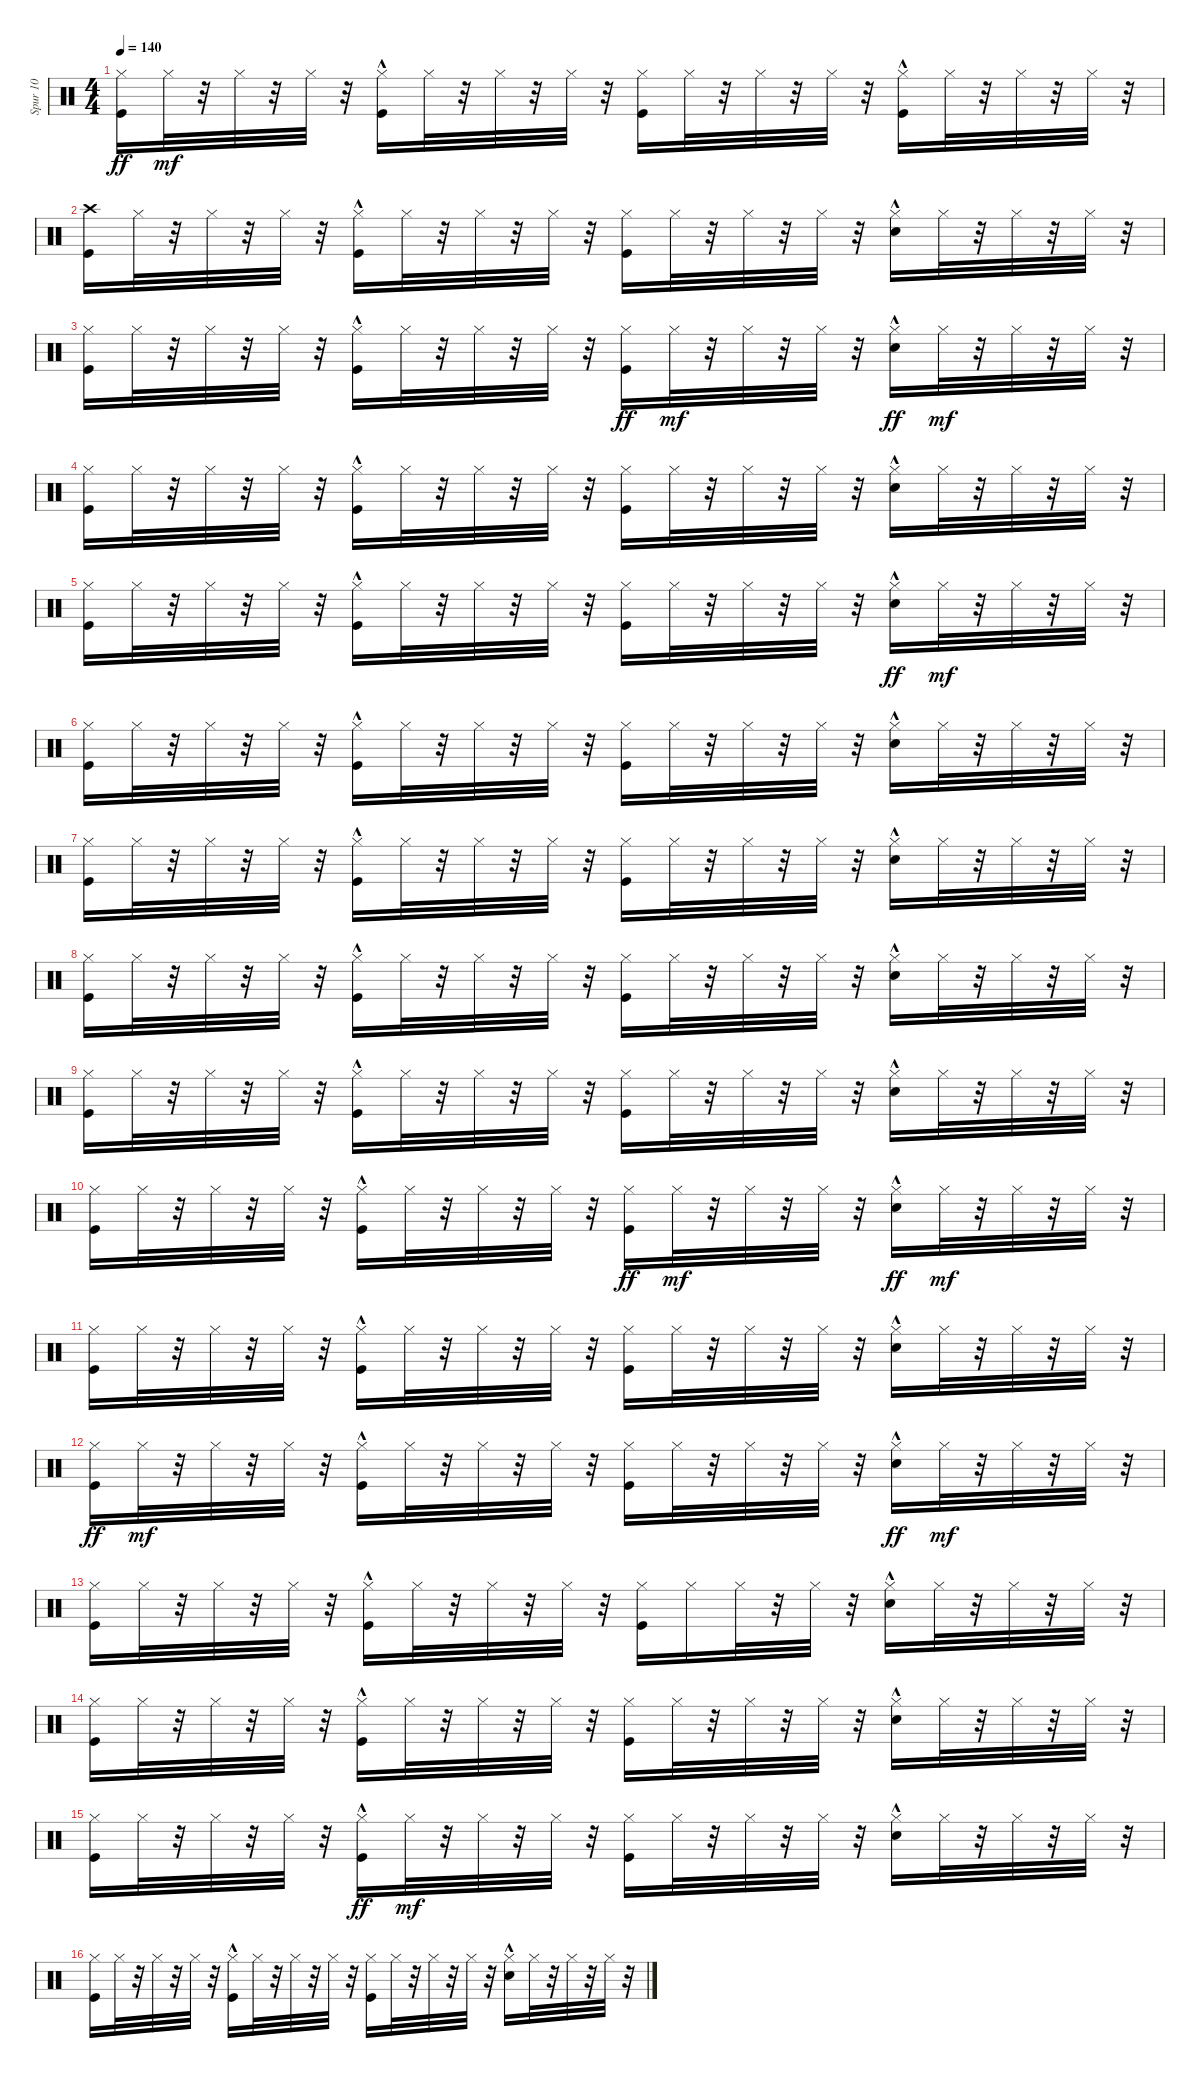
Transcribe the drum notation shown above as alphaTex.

\track ("Spur 10" "Spur 10") {instrument percussion}
\staff {score}
\articulation defaults
\ts (4 4)
\tempo 140
\clef neutral
\ks c
("Hi-Hat (closed)" "Kick (hit)").16{dy ff} "Hi-Hat (closed)".32{dy mf} r.32 "Hi-Hat (closed)".32 r.32 "Hi-Hat (closed)".32 r.32 ("Kick (hit)"{hac} "Hi-Hat (closed)").16 "Hi-Hat (closed)".32 r.32 "Hi-Hat (closed)".32 r.32 "Hi-Hat (closed)".32 r.32 ("Kick (hit)" "Hi-Hat (closed)").16 "Hi-Hat (closed)".32 r.32 "Hi-Hat (closed)".32 r.32 "Hi-Hat (closed)".32 r.32 ("Kick (hit)"{hac} "Hi-Hat (closed)").16 "Hi-Hat (closed)".32 r.32 "Hi-Hat (closed)".32 r.32 "Hi-Hat (closed)".32 r.32 |
("Kick (hit)" "Crash high (hit)").16 "Hi-Hat (closed)".32 r.32 "Hi-Hat (closed)".32 r.32 "Hi-Hat (closed)".32 r.32 ("Kick (hit)"{hac} "Hi-Hat (closed)").16 "Hi-Hat (closed)".32 r.32 "Hi-Hat (closed)".32 r.32 "Hi-Hat (closed)".32 r.32 ("Kick (hit)" "Hi-Hat (closed)").16 "Hi-Hat (closed)".32 r.32 "Hi-Hat (closed)".32 r.32 "Hi-Hat (closed)".32 r.32 ("Snare (hit) 2"{hac} "Hi-Hat (closed)").16 "Hi-Hat (closed)".32 r.32 "Hi-Hat (closed)".32 r.32 "Hi-Hat (closed)".32 r.32 |
("Kick (hit)" "Hi-Hat (closed)").16 "Hi-Hat (closed)".32 r.32 "Hi-Hat (closed)".32 r.32 "Hi-Hat (closed)".32 r.32 ("Kick (hit)"{hac} "Hi-Hat (closed)").16 "Hi-Hat (closed)".32 r.32 "Hi-Hat (closed)".32 r.32 "Hi-Hat (closed)".32 r.32 ("Hi-Hat (closed)" "Kick (hit)").16{dy ff} "Hi-Hat (closed)".32{dy mf} r.32 "Hi-Hat (closed)".32 r.32 "Hi-Hat (closed)".32 r.32 ("Hi-Hat (closed)" "Snare (hit) 2"{hac}).16{dy ff} "Hi-Hat (closed)".32{dy mf} r.32 "Hi-Hat (closed)".32 r.32 "Hi-Hat (closed)".32 r.32 |
("Kick (hit)" "Hi-Hat (closed)").16 "Hi-Hat (closed)".32 r.32 "Hi-Hat (closed)".32 r.32 "Hi-Hat (closed)".32 r.32 ("Kick (hit)"{hac} "Hi-Hat (closed)").16 "Hi-Hat (closed)".32 r.32 "Hi-Hat (closed)".32 r.32 "Hi-Hat (closed)".32 r.32 ("Kick (hit)" "Hi-Hat (closed)").16 "Hi-Hat (closed)".32 r.32 "Hi-Hat (closed)".32 r.32 "Hi-Hat (closed)".32 r.32 ("Snare (hit) 2"{hac} "Hi-Hat (closed)").16 "Hi-Hat (closed)".32 r.32 "Hi-Hat (closed)".32 r.32 "Hi-Hat (closed)".32 r.32 |
("Kick (hit)" "Hi-Hat (closed)").16 "Hi-Hat (closed)".32 r.32 "Hi-Hat (closed)".32 r.32 "Hi-Hat (closed)".32 r.32 ("Kick (hit)"{hac} "Hi-Hat (closed)").16 "Hi-Hat (closed)".32 r.32 "Hi-Hat (closed)".32 r.32 "Hi-Hat (closed)".32 r.32 ("Kick (hit)" "Hi-Hat (closed)").16 "Hi-Hat (closed)".32 r.32 "Hi-Hat (closed)".32 r.32 "Hi-Hat (closed)".32 r.32 ("Hi-Hat (closed)" "Snare (hit) 2"{hac}).16{dy ff} "Hi-Hat (closed)".32{dy mf} r.32 "Hi-Hat (closed)".32 r.32 "Hi-Hat (closed)".32 r.32 |
("Kick (hit)" "Hi-Hat (closed)").16 "Hi-Hat (closed)".32 r.32 "Hi-Hat (closed)".32 r.32 "Hi-Hat (closed)".32 r.32 ("Kick (hit)"{hac} "Hi-Hat (closed)").16 "Hi-Hat (closed)".32 r.32 "Hi-Hat (closed)".32 r.32 "Hi-Hat (closed)".32 r.32 ("Kick (hit)" "Hi-Hat (closed)").16 "Hi-Hat (closed)".32 r.32 "Hi-Hat (closed)".32 r.32 "Hi-Hat (closed)".32 r.32 ("Snare (hit) 2"{hac} "Hi-Hat (closed)").16 "Hi-Hat (closed)".32 r.32 "Hi-Hat (closed)".32 r.32 "Hi-Hat (closed)".32 r.32 |
("Kick (hit)" "Hi-Hat (closed)").16 "Hi-Hat (closed)".32 r.32 "Hi-Hat (closed)".32 r.32 "Hi-Hat (closed)".32 r.32 ("Kick (hit)"{hac} "Hi-Hat (closed)").16 "Hi-Hat (closed)".32 r.32 "Hi-Hat (closed)".32 r.32 "Hi-Hat (closed)".32 r.32 ("Kick (hit)" "Hi-Hat (closed)").16 "Hi-Hat (closed)".32 r.32 "Hi-Hat (closed)".32 r.32 "Hi-Hat (closed)".32 r.32 ("Snare (hit) 2"{hac} "Hi-Hat (closed)").16 "Hi-Hat (closed)".32 r.32 "Hi-Hat (closed)".32 r.32 "Hi-Hat (closed)".32 r.32 |
("Kick (hit)" "Hi-Hat (closed)").16 "Hi-Hat (closed)".32 r.32 "Hi-Hat (closed)".32 r.32 "Hi-Hat (closed)".32 r.32 ("Kick (hit)"{hac} "Hi-Hat (closed)").16 "Hi-Hat (closed)".32 r.32 "Hi-Hat (closed)".32 r.32 "Hi-Hat (closed)".32 r.32 ("Kick (hit)" "Hi-Hat (closed)").16 "Hi-Hat (closed)".32 r.32 "Hi-Hat (closed)".32 r.32 "Hi-Hat (closed)".32 r.32 ("Snare (hit) 2"{hac} "Hi-Hat (closed)").16 "Hi-Hat (closed)".32 r.32 "Hi-Hat (closed)".32 r.32 "Hi-Hat (closed)".32 r.32 |
("Kick (hit)" "Hi-Hat (closed)").16 "Hi-Hat (closed)".32 r.32 "Hi-Hat (closed)".32 r.32 "Hi-Hat (closed)".32 r.32 ("Kick (hit)"{hac} "Hi-Hat (closed)").16 "Hi-Hat (closed)".32 r.32 "Hi-Hat (closed)".32 r.32 "Hi-Hat (closed)".32 r.32 ("Kick (hit)" "Hi-Hat (closed)").16 "Hi-Hat (closed)".32 r.32 "Hi-Hat (closed)".32 r.32 "Hi-Hat (closed)".32 r.32 ("Snare (hit) 2"{hac} "Hi-Hat (closed)").16 "Hi-Hat (closed)".32 r.32 "Hi-Hat (closed)".32 r.32 "Hi-Hat (closed)".32 r.32 |
("Kick (hit)" "Hi-Hat (closed)").16 "Hi-Hat (closed)".32 r.32 "Hi-Hat (closed)".32 r.32 "Hi-Hat (closed)".32 r.32 ("Kick (hit)"{hac} "Hi-Hat (closed)").16 "Hi-Hat (closed)".32 r.32 "Hi-Hat (closed)".32 r.32 "Hi-Hat (closed)".32 r.32 ("Hi-Hat (closed)" "Kick (hit)").16{dy ff} "Hi-Hat (closed)".32{dy mf} r.32 "Hi-Hat (closed)".32 r.32 "Hi-Hat (closed)".32 r.32 ("Hi-Hat (closed)" "Snare (hit) 2"{hac}).16{dy ff} "Hi-Hat (closed)".32{dy mf} r.32 "Hi-Hat (closed)".32 r.32 "Hi-Hat (closed)".32 r.32 |
("Kick (hit)" "Hi-Hat (closed)").16 "Hi-Hat (closed)".32 r.32 "Hi-Hat (closed)".32 r.32 "Hi-Hat (closed)".32 r.32 ("Kick (hit)"{hac} "Hi-Hat (closed)").16 "Hi-Hat (closed)".32 r.32 "Hi-Hat (closed)".32 r.32 "Hi-Hat (closed)".32 r.32 ("Kick (hit)" "Hi-Hat (closed)").16 "Hi-Hat (closed)".32 r.32 "Hi-Hat (closed)".32 r.32 "Hi-Hat (closed)".32 r.32 ("Snare (hit) 2"{hac} "Hi-Hat (closed)").16 "Hi-Hat (closed)".32 r.32 "Hi-Hat (closed)".32 r.32 "Hi-Hat (closed)".32 r.32 |
("Hi-Hat (closed)" "Kick (hit)").16{dy ff} "Hi-Hat (closed)".32{dy mf} r.32 "Hi-Hat (closed)".32 r.32 "Hi-Hat (closed)".32 r.32 ("Kick (hit)"{hac} "Hi-Hat (closed)").16 "Hi-Hat (closed)".32 r.32 "Hi-Hat (closed)".32 r.32 "Hi-Hat (closed)".32 r.32 ("Kick (hit)" "Hi-Hat (closed)").16 "Hi-Hat (closed)".32 r.32 "Hi-Hat (closed)".32 r.32 "Hi-Hat (closed)".32 r.32 ("Hi-Hat (closed)" "Snare (hit) 2"{hac}).16{dy ff} "Hi-Hat (closed)".32{dy mf} r.32 "Hi-Hat (closed)".32 r.32 "Hi-Hat (closed)".32 r.32 |
("Kick (hit)" "Hi-Hat (closed)").16 "Hi-Hat (closed)".32 r.32 "Hi-Hat (closed)".32 r.32 "Hi-Hat (closed)".32 r.32 ("Kick (hit)"{hac} "Hi-Hat (closed)").16 "Hi-Hat (closed)".32 r.32 "Hi-Hat (closed)".32 r.32 "Hi-Hat (closed)".32 r.32 ("Kick (hit)" "Hi-Hat (closed)").16 "Hi-Hat (closed)".16 "Hi-Hat (closed)".32 r.32 "Hi-Hat (closed)".32 r.32 ("Snare (hit) 2"{hac} "Hi-Hat (closed)").16 "Hi-Hat (closed)".32 r.32 "Hi-Hat (closed)".32 r.32 "Hi-Hat (closed)".32 r.32 |
("Kick (hit)" "Hi-Hat (closed)").16 "Hi-Hat (closed)".32 r.32 "Hi-Hat (closed)".32 r.32 "Hi-Hat (closed)".32 r.32 ("Kick (hit)"{hac} "Hi-Hat (closed)").16 "Hi-Hat (closed)".32 r.32 "Hi-Hat (closed)".32 r.32 "Hi-Hat (closed)".32 r.32 ("Kick (hit)" "Hi-Hat (closed)").16 "Hi-Hat (closed)".32 r.32 "Hi-Hat (closed)".32 r.32 "Hi-Hat (closed)".32 r.32 ("Snare (hit) 2"{hac} "Hi-Hat (closed)").16 "Hi-Hat (closed)".32 r.32 "Hi-Hat (closed)".32 r.32 "Hi-Hat (closed)".32 r.32 |
("Kick (hit)" "Hi-Hat (closed)").16 "Hi-Hat (closed)".32 r.32 "Hi-Hat (closed)".32 r.32 "Hi-Hat (closed)".32 r.32 ("Hi-Hat (closed)" "Kick (hit)"{hac}).16{dy ff} "Hi-Hat (closed)".32{dy mf} r.32 "Hi-Hat (closed)".32 r.32 "Hi-Hat (closed)".32 r.32 ("Kick (hit)" "Hi-Hat (closed)").16 "Hi-Hat (closed)".32 r.32 "Hi-Hat (closed)".32 r.32 "Hi-Hat (closed)".32 r.32 ("Snare (hit) 2"{hac} "Hi-Hat (closed)").16 "Hi-Hat (closed)".32 r.32 "Hi-Hat (closed)".32 r.32 "Hi-Hat (closed)".32 r.32 |
("Kick (hit)" "Hi-Hat (closed)").16 "Hi-Hat (closed)".32 r.32 "Hi-Hat (closed)".32 r.32 "Hi-Hat (closed)".32 r.32 ("Kick (hit)"{hac} "Hi-Hat (closed)").16 "Hi-Hat (closed)".32 r.32 "Hi-Hat (closed)".32 r.32 "Hi-Hat (closed)".32 r.32 ("Kick (hit)" "Hi-Hat (closed)").16 "Hi-Hat (closed)".32 r.32 "Hi-Hat (closed)".32 r.32 "Hi-Hat (closed)".32 r.32 ("Snare (hit) 2"{hac} "Hi-Hat (closed)").16 "Hi-Hat (closed)".32 r.32 "Hi-Hat (closed)".32 r.32 "Hi-Hat (closed)".32 r.32
